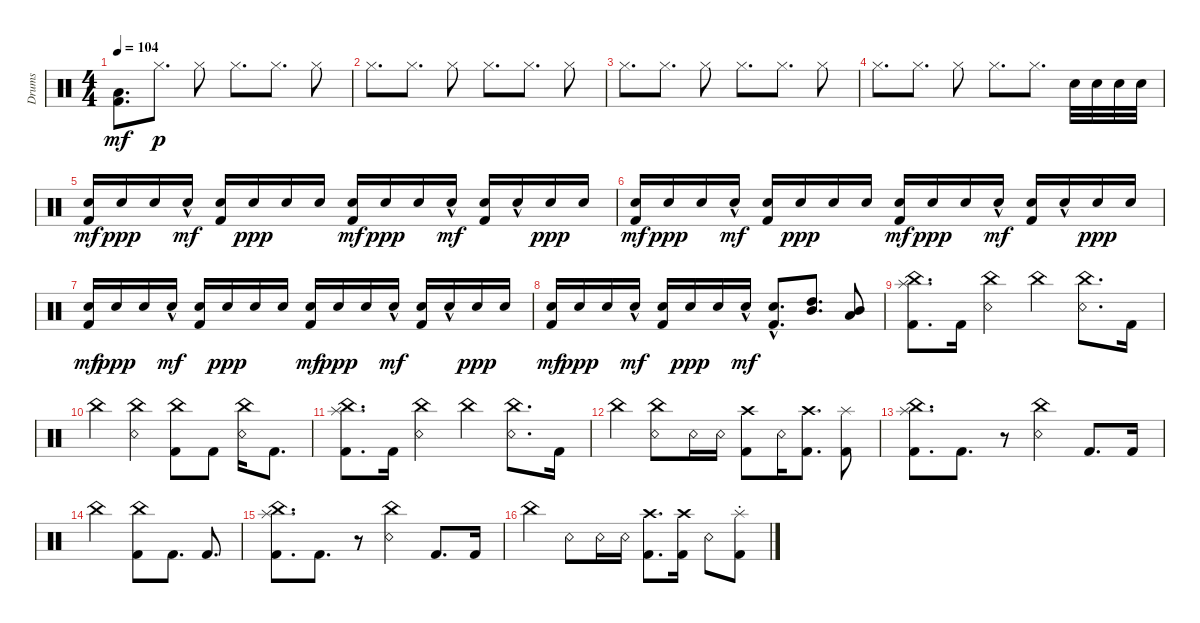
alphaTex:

\track ("Drums" "Drums") {instrument percussion}
\staff {score}
\articulation defaults
\ts (4 4)
\tempo 104
\clef neutral
\ks c
("Low Tom (hit)" "Kick (hit) 2").8{d dy mf} "Hi-Hat (closed)".8{d dy p} "Hi-Hat (closed)".8 "Hi-Hat (closed)".8{d} "Hi-Hat (closed)".8{d} "Hi-Hat (closed)".8 |
"Hi-Hat (closed)".8{d} "Hi-Hat (closed)".8{d} "Hi-Hat (closed)".8 "Hi-Hat (closed)".8{d} "Hi-Hat (closed)".8{d} "Hi-Hat (closed)".8 |
"Hi-Hat (closed)".8{d} "Hi-Hat (closed)".8{d} "Hi-Hat (closed)".8 "Hi-Hat (closed)".8{d} "Hi-Hat (closed)".8{d} "Hi-Hat (closed)".8 |
"Hi-Hat (closed)".8{d} "Hi-Hat (closed)".8{d} "Hi-Hat (closed)".8 "Hi-Hat (closed)".8{d} "Hi-Hat (closed)".8{d} "Snare (hit) 2".32 "Snare (hit) 2".32 "Snare (hit) 2".32 "Snare (hit) 2".32 |
("Snare (hit) 2" "Kick (hit) 2").16{dy mf} "Snare (hit) 2".16{dy ppp} "Snare (hit) 2".16 "Snare (hit) 2"{hac}.16{dy mf} ("Snare (hit) 2" "Kick (hit) 2").16 "Snare (hit) 2".16{dy ppp} "Snare (hit) 2".16 "Snare (hit) 2".16 ("Snare (hit) 2" "Kick (hit) 2").16{dy mf} "Snare (hit) 2".16{dy ppp} "Snare (hit) 2".16 "Snare (hit) 2"{hac}.16{dy mf} ("Snare (hit) 2" "Kick (hit) 2").16 "Snare (hit) 2"{hac}.16 "Snare (hit) 2".16{dy ppp} "Snare (hit) 2".16 |
("Snare (hit) 2" "Kick (hit) 2").16{dy mf} "Snare (hit) 2".16{dy ppp} "Snare (hit) 2".16 "Snare (hit) 2"{hac}.16{dy mf} ("Snare (hit) 2" "Kick (hit) 2").16 "Snare (hit) 2".16{dy ppp} "Snare (hit) 2".16 "Snare (hit) 2".16 ("Snare (hit) 2" "Kick (hit) 2").16{dy mf} "Snare (hit) 2".16{dy ppp} "Snare (hit) 2".16 "Snare (hit) 2"{hac}.16{dy mf} ("Snare (hit) 2" "Kick (hit) 2").16 "Snare (hit) 2"{hac}.16 "Snare (hit) 2".16{dy ppp} "Snare (hit) 2".16 |
("Snare (hit) 2" "Kick (hit) 2").16{dy mf} "Snare (hit) 2".16{dy ppp} "Snare (hit) 2".16 "Snare (hit) 2"{hac}.16{dy mf} ("Snare (hit) 2" "Kick (hit) 2").16 "Snare (hit) 2".16{dy ppp} "Snare (hit) 2".16 "Snare (hit) 2".16 ("Snare (hit) 2" "Kick (hit) 2").16{dy mf} "Snare (hit) 2".16{dy ppp} "Snare (hit) 2".16 "Snare (hit) 2"{hac}.16{dy mf} ("Snare (hit) 2" "Kick (hit) 2").16 "Snare (hit) 2"{hac}.16 "Snare (hit) 2".16{dy ppp} "Snare (hit) 2".16 |
("Snare (hit) 2" "Kick (hit) 2").16{dy mf} "Snare (hit) 2".16{dy ppp} "Snare (hit) 2".16 "Snare (hit) 2"{hac}.16{dy mf} ("Snare (hit) 2" "Kick (hit) 2").16 "Snare (hit) 2".16{dy ppp} "Snare (hit) 2".16 "Snare (hit) 2"{hac}.16{dy mf} ("Snare (hit) 2"{hac} "Kick (hit) 2"{hac}).8{d} ("High Tom (hit)" "Mid Tom (hit)").8{d} ("Mid Tom (hit)" "Low Tom (hit)").8 |
("China (hit)" "Splash (hit)" "Kick (hit) 2").8{d} "Kick (hit) 2".16 ("China (hit)" "Snare (rim shot)").4 "China (hit)".4 ("China (hit)" "Snare (rim shot)").8{d} "Kick (hit) 2".16 |
"China (hit)".4 ("China (hit)" "Snare (rim shot)").4 ("China (hit)" "Kick (hit) 2").8 "Kick (hit) 2".8 ("China (hit)" "Snare (rim shot)").16 "Kick (hit) 2".8{d} |
("China (hit)" "Splash (hit)" "Kick (hit) 2").8{d} "Kick (hit) 2".16 ("China (hit)" "Snare (rim shot)").4 "China (hit)".4 ("China (hit)" "Snare (rim shot)").8{d} "Kick (hit) 2".16 |
"China (hit)".4 ("China (hit)" "Snare (rim shot)").8 "Snare (rim shot)".16 "Snare (rim shot)".16 ("Crash high (hit)" "Kick (hit) 2").8 "Snare (rim shot)".16 ("Crash high (hit)" "Kick (hit) 2").8{d} ("Splash (hit)" "Kick (hit) 2").8 |
("China (hit)" "Splash (hit)" "Kick (hit) 2").8{d} "Kick (hit) 2".8{d} r.8 ("China (hit)" "Snare (rim shot)").4 "Kick (hit) 2".8{d} "Kick (hit) 2".16 |
"China (hit)".2 ("China (hit)" "Kick (hit) 2").8 "Kick (hit) 2".8{d} "Kick (hit) 2".8{d} |
("China (hit)" "Splash (hit)" "Kick (hit) 2").8{d} "Kick (hit) 2".8{d} r.8 ("China (hit)" "Snare (rim shot)").4 "Kick (hit) 2".8{d} "Kick (hit) 2".16 |
"China (hit)".4 "Snare (rim shot)".8 "Snare (rim shot)".16 "Snare (rim shot)".16 ("Crash high (hit)" "Kick (hit) 2").8{d} ("Crash high (hit)" "Kick (hit) 2").16 "Snare (rim shot)".8 ("Splash (hit)"{st} "Kick (hit) 2").8
